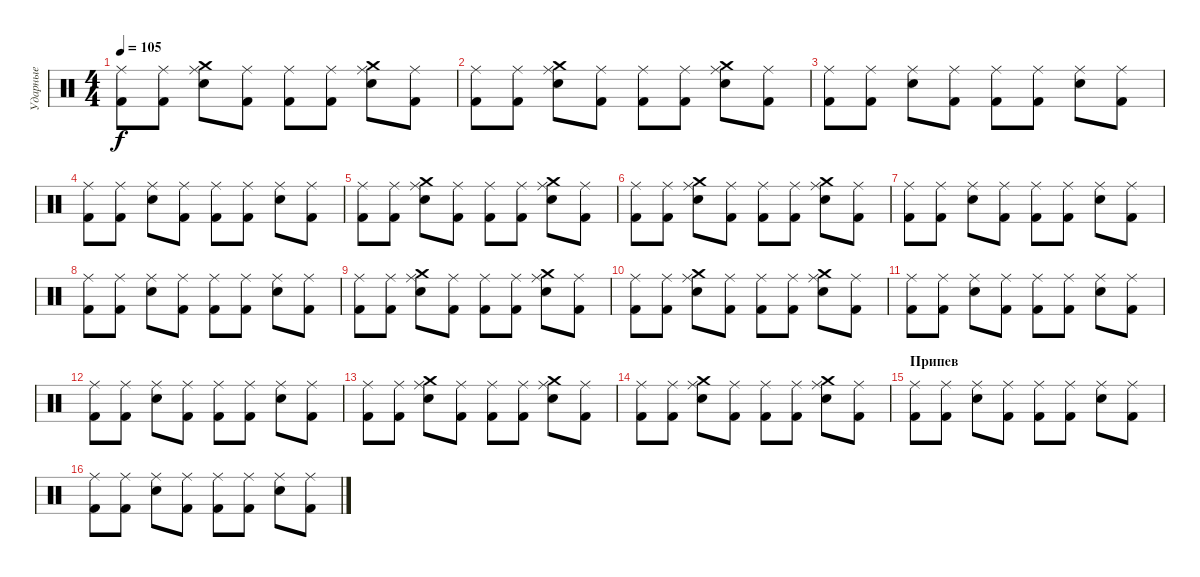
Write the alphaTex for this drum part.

\track ("Ударные" "Ударные") {instrument percussion}
\staff {score}
\articulation defaults
\ts (4 4)
\tempo 105
\clef neutral
\ks c
("Ride (middle)" "Kick (hit) 2").8{dy f} ("Ride (middle)" "Kick (hit) 2").8 ("Crash medium (hit)" "Ride (middle)" "Electric Snare (hit)").8 ("Ride (middle)" "Kick (hit) 2").8 ("Ride (middle)" "Kick (hit) 2").8 ("Ride (middle)" "Kick (hit) 2").8 ("Crash medium (hit)" "Ride (middle)" "Electric Snare (hit)").8 ("Ride (middle)" "Kick (hit) 2").8 |
("Ride (middle)" "Kick (hit) 2").8 ("Ride (middle)" "Kick (hit) 2").8 ("Crash medium (hit)" "Ride (middle)" "Electric Snare (hit)").8 ("Ride (middle)" "Kick (hit) 2").8 ("Ride (middle)" "Kick (hit) 2").8 ("Ride (middle)" "Kick (hit) 2").8 ("Crash medium (hit)" "Ride (middle)" "Electric Snare (hit)").8 ("Ride (middle)" "Kick (hit) 2").8 |
("Ride (middle)" "Kick (hit) 2").8 ("Ride (middle)" "Kick (hit) 2").8 ("Ride (middle)" "Electric Snare (hit)").8 ("Ride (middle)" "Kick (hit) 2").8 ("Ride (middle)" "Kick (hit) 2").8 ("Ride (middle)" "Kick (hit) 2").8 ("Ride (middle)" "Electric Snare (hit)").8 ("Ride (middle)" "Kick (hit) 2").8 |
("Ride (middle)" "Kick (hit) 2").8 ("Ride (middle)" "Kick (hit) 2").8 ("Ride (middle)" "Electric Snare (hit)").8 ("Ride (middle)" "Kick (hit) 2").8 ("Ride (middle)" "Kick (hit) 2").8 ("Ride (middle)" "Kick (hit) 2").8 ("Ride (middle)" "Electric Snare (hit)").8 ("Ride (middle)" "Kick (hit) 2").8 |
("Ride (middle)" "Kick (hit) 2").8 ("Ride (middle)" "Kick (hit) 2").8 ("Crash medium (hit)" "Ride (middle)" "Electric Snare (hit)").8 ("Ride (middle)" "Kick (hit) 2").8 ("Ride (middle)" "Kick (hit) 2").8 ("Ride (middle)" "Kick (hit) 2").8 ("Crash medium (hit)" "Ride (middle)" "Electric Snare (hit)").8 ("Ride (middle)" "Kick (hit) 2").8 |
("Ride (middle)" "Kick (hit) 2").8 ("Ride (middle)" "Kick (hit) 2").8 ("Crash medium (hit)" "Ride (middle)" "Electric Snare (hit)").8 ("Ride (middle)" "Kick (hit) 2").8 ("Ride (middle)" "Kick (hit) 2").8 ("Ride (middle)" "Kick (hit) 2").8 ("Crash medium (hit)" "Ride (middle)" "Electric Snare (hit)").8 ("Ride (middle)" "Kick (hit) 2").8 |
("Ride (middle)" "Kick (hit) 2").8 ("Ride (middle)" "Kick (hit) 2").8 ("Ride (middle)" "Electric Snare (hit)").8 ("Ride (middle)" "Kick (hit) 2").8 ("Ride (middle)" "Kick (hit) 2").8 ("Ride (middle)" "Kick (hit) 2").8 ("Ride (middle)" "Electric Snare (hit)").8 ("Ride (middle)" "Kick (hit) 2").8 |
("Ride (middle)" "Kick (hit) 2").8 ("Ride (middle)" "Kick (hit) 2").8 ("Ride (middle)" "Electric Snare (hit)").8 ("Ride (middle)" "Kick (hit) 2").8 ("Ride (middle)" "Kick (hit) 2").8 ("Ride (middle)" "Kick (hit) 2").8 ("Ride (middle)" "Electric Snare (hit)").8 ("Ride (middle)" "Kick (hit) 2").8 |
("Ride (middle)" "Kick (hit) 2").8 ("Ride (middle)" "Kick (hit) 2").8 ("Crash medium (hit)" "Ride (middle)" "Electric Snare (hit)").8 ("Ride (middle)" "Kick (hit) 2").8 ("Ride (middle)" "Kick (hit) 2").8 ("Ride (middle)" "Kick (hit) 2").8 ("Crash medium (hit)" "Ride (middle)" "Electric Snare (hit)").8 ("Ride (middle)" "Kick (hit) 2").8 |
("Ride (middle)" "Kick (hit) 2").8 ("Ride (middle)" "Kick (hit) 2").8 ("Crash medium (hit)" "Ride (middle)" "Electric Snare (hit)").8 ("Ride (middle)" "Kick (hit) 2").8 ("Ride (middle)" "Kick (hit) 2").8 ("Ride (middle)" "Kick (hit) 2").8 ("Crash medium (hit)" "Ride (middle)" "Electric Snare (hit)").8 ("Ride (middle)" "Kick (hit) 2").8 |
("Ride (middle)" "Kick (hit) 2").8 ("Ride (middle)" "Kick (hit) 2").8 ("Ride (middle)" "Electric Snare (hit)").8 ("Ride (middle)" "Kick (hit) 2").8 ("Ride (middle)" "Kick (hit) 2").8 ("Ride (middle)" "Kick (hit) 2").8 ("Ride (middle)" "Electric Snare (hit)").8 ("Ride (middle)" "Kick (hit) 2").8 |
("Ride (middle)" "Kick (hit) 2").8 ("Ride (middle)" "Kick (hit) 2").8 ("Ride (middle)" "Electric Snare (hit)").8 ("Ride (middle)" "Kick (hit) 2").8 ("Ride (middle)" "Kick (hit) 2").8 ("Ride (middle)" "Kick (hit) 2").8 ("Ride (middle)" "Electric Snare (hit)").8 ("Ride (middle)" "Kick (hit) 2").8 |
("Ride (middle)" "Kick (hit) 2").8 ("Ride (middle)" "Kick (hit) 2").8 ("Crash medium (hit)" "Ride (middle)" "Electric Snare (hit)").8 ("Ride (middle)" "Kick (hit) 2").8 ("Ride (middle)" "Kick (hit) 2").8 ("Ride (middle)" "Kick (hit) 2").8 ("Crash medium (hit)" "Ride (middle)" "Electric Snare (hit)").8 ("Ride (middle)" "Kick (hit) 2").8 |
("Ride (middle)" "Kick (hit) 2").8 ("Ride (middle)" "Kick (hit) 2").8 ("Crash medium (hit)" "Ride (middle)" "Electric Snare (hit)").8 ("Ride (middle)" "Kick (hit) 2").8 ("Ride (middle)" "Kick (hit) 2").8 ("Ride (middle)" "Kick (hit) 2").8 ("Crash medium (hit)" "Ride (middle)" "Electric Snare (hit)").8 ("Ride (middle)" "Kick (hit) 2").8 |
\section ("" "Припев")
("Ride (middle)" "Kick (hit) 2").8 ("Ride (middle)" "Kick (hit) 2").8 ("Ride (middle)" "Electric Snare (hit)").8 ("Ride (middle)" "Kick (hit) 2").8 ("Ride (middle)" "Kick (hit) 2").8 ("Ride (middle)" "Kick (hit) 2").8 ("Ride (middle)" "Electric Snare (hit)").8 ("Ride (middle)" "Kick (hit) 2").8 |
("Ride (middle)" "Kick (hit) 2").8 ("Ride (middle)" "Kick (hit) 2").8 ("Ride (middle)" "Electric Snare (hit)").8 ("Ride (middle)" "Kick (hit) 2").8 ("Ride (middle)" "Kick (hit) 2").8 ("Ride (middle)" "Kick (hit) 2").8 ("Ride (middle)" "Electric Snare (hit)").8 ("Ride (middle)" "Kick (hit) 2").8
